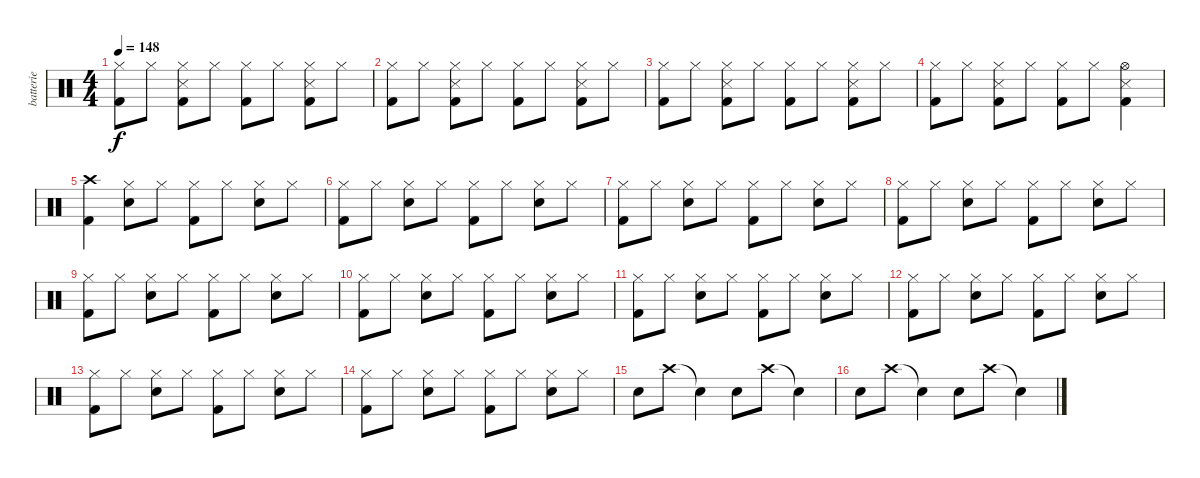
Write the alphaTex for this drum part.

\track ("batterie" "batterie") {instrument percussion}
\staff {score}
\articulation defaults
\ts (4 4)
\tempo 148
\clef neutral
\ks c
("Hi-Hat (closed)" "Kick (hit) 2").8{dy f} "Hi-Hat (closed)".8 ("Hi-Hat (closed)" "Snare (side stick) 3" "Kick (hit) 2").8 "Hi-Hat (closed)".8 ("Hi-Hat (closed)" "Kick (hit) 2").8 "Hi-Hat (closed)".8 ("Hi-Hat (closed)" "Snare (side stick) 3" "Kick (hit) 2").8 "Hi-Hat (closed)".8 |
("Hi-Hat (closed)" "Kick (hit) 2").8 "Hi-Hat (closed)".8 ("Hi-Hat (closed)" "Snare (side stick) 3" "Kick (hit) 2").8 "Hi-Hat (closed)".8 ("Hi-Hat (closed)" "Kick (hit) 2").8 "Hi-Hat (closed)".8 ("Hi-Hat (closed)" "Snare (side stick) 3" "Kick (hit) 2").8 "Hi-Hat (closed)".8 |
("Hi-Hat (closed)" "Kick (hit) 2").8 "Hi-Hat (closed)".8 ("Hi-Hat (closed)" "Snare (side stick) 3" "Kick (hit) 2").8 "Hi-Hat (closed)".8 ("Hi-Hat (closed)" "Kick (hit) 2").8 "Hi-Hat (closed)".8 ("Hi-Hat (closed)" "Snare (side stick) 3" "Kick (hit) 2").8 "Hi-Hat (closed)".8 |
("Hi-Hat (closed)" "Kick (hit) 2").8 "Hi-Hat (closed)".8 ("Hi-Hat (closed)" "Snare (side stick) 3" "Kick (hit) 2").8 "Hi-Hat (closed)".8 ("Hi-Hat (closed)" "Kick (hit) 2").8 "Hi-Hat (closed)".8 ("Hi-Hat (open)" "Snare (side stick) 3" "Kick (hit) 2").4 |
("Crash high (hit)" "Kick (hit) 2").4 ("Hi-Hat (closed)" "Snare (hit) 2").8 "Hi-Hat (closed)".8 ("Hi-Hat (closed)" "Kick (hit) 2").8 "Hi-Hat (closed)".8 ("Hi-Hat (closed)" "Snare (hit) 2").8 "Hi-Hat (closed)".8 |
("Hi-Hat (closed)" "Kick (hit) 2").8 "Hi-Hat (closed)".8 ("Hi-Hat (closed)" "Snare (hit) 2").8 "Hi-Hat (closed)".8 ("Hi-Hat (closed)" "Kick (hit) 2").8 "Hi-Hat (closed)".8 ("Hi-Hat (closed)" "Snare (hit) 2").8 "Hi-Hat (closed)".8 |
("Hi-Hat (closed)" "Kick (hit) 2").8 "Hi-Hat (closed)".8 ("Hi-Hat (closed)" "Snare (hit) 2").8 "Hi-Hat (closed)".8 ("Hi-Hat (closed)" "Kick (hit) 2").8 "Hi-Hat (closed)".8 ("Hi-Hat (closed)" "Snare (hit) 2").8 "Hi-Hat (closed)".8 |
("Hi-Hat (closed)" "Kick (hit) 2").8 "Hi-Hat (closed)".8 ("Hi-Hat (closed)" "Snare (hit) 2").8 "Hi-Hat (closed)".8 ("Hi-Hat (closed)" "Kick (hit) 2").8 "Hi-Hat (closed)".8 ("Hi-Hat (closed)" "Snare (hit) 2").8 "Hi-Hat (closed)".8 |
("Hi-Hat (closed)" "Kick (hit) 2").8 "Hi-Hat (closed)".8 ("Hi-Hat (closed)" "Snare (hit) 2").8 "Hi-Hat (closed)".8 ("Hi-Hat (closed)" "Kick (hit) 2").8 "Hi-Hat (closed)".8 ("Hi-Hat (closed)" "Snare (hit) 2").8 "Hi-Hat (closed)".8 |
("Hi-Hat (closed)" "Kick (hit) 2").8 "Hi-Hat (closed)".8 ("Hi-Hat (closed)" "Snare (hit) 2").8 "Hi-Hat (closed)".8 ("Hi-Hat (closed)" "Kick (hit) 2").8 "Hi-Hat (closed)".8 ("Hi-Hat (closed)" "Snare (hit) 2").8 "Hi-Hat (closed)".8 |
("Hi-Hat (closed)" "Kick (hit) 2").8 "Hi-Hat (closed)".8 ("Hi-Hat (closed)" "Snare (hit) 2").8 "Hi-Hat (closed)".8 ("Hi-Hat (closed)" "Kick (hit) 2").8 "Hi-Hat (closed)".8 ("Hi-Hat (closed)" "Snare (hit) 2").8 "Hi-Hat (closed)".8 |
("Hi-Hat (closed)" "Kick (hit) 2").8 "Hi-Hat (closed)".8 ("Hi-Hat (closed)" "Snare (hit) 2").8 "Hi-Hat (closed)".8 ("Hi-Hat (closed)" "Kick (hit) 2").8 "Hi-Hat (closed)".8 ("Hi-Hat (closed)" "Snare (hit) 2").8 "Hi-Hat (closed)".8 |
("Hi-Hat (closed)" "Kick (hit) 2").8 "Hi-Hat (closed)".8 ("Hi-Hat (closed)" "Snare (hit) 2").8 "Hi-Hat (closed)".8 ("Hi-Hat (closed)" "Kick (hit) 2").8 "Hi-Hat (closed)".8 ("Hi-Hat (closed)" "Snare (hit) 2").8 "Hi-Hat (closed)".8 |
("Hi-Hat (closed)" "Kick (hit) 2").8 "Hi-Hat (closed)".8 ("Hi-Hat (closed)" "Snare (hit) 2").8 "Hi-Hat (closed)".8 ("Hi-Hat (closed)" "Kick (hit) 2").8 "Hi-Hat (closed)".8 ("Hi-Hat (closed)" "Snare (hit) 2").8 "Hi-Hat (closed)".8 |
"Snare (hit) 2".8 "Crash high (hit)".8 "Snare (hit)"{t}.4 "Snare (hit) 2".8 "Crash high (hit)".8 "Snare (hit)"{t}.4 |
"Snare (hit) 2".8 "Crash high (hit)".8 "Snare (hit)"{t}.4 "Snare (hit) 2".8 "Crash high (hit)".8 "Snare (hit)"{t}.4
